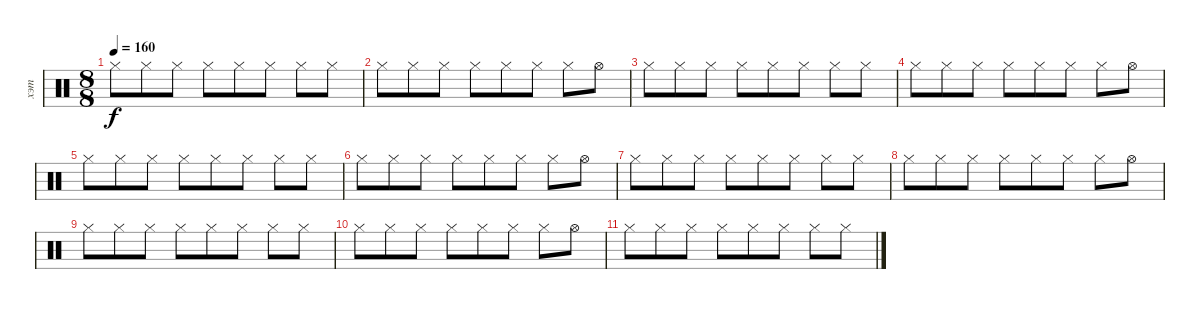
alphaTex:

\track ("хэт" "хэт") {instrument percussion}
\staff {score}
\articulation defaults
\ts (8 8)
\tempo 160
\clef neutral
\ks c "Hi-Hat (closed)".8{dy f volume 16} "Hi-Hat (closed)".8 "Hi-Hat (closed)".8{volume 16} "Hi-Hat (closed)".8 "Hi-Hat (closed)".8{volume 15} "Hi-Hat (closed)".8{volume 15} "Hi-Hat (closed)".8{volume 15} "Hi-Hat (closed)".8
|
"Hi-Hat (closed)".8{volume 15} "Hi-Hat (closed)".8{volume 15} "Hi-Hat (closed)".8{volume 14} "Hi-Hat (closed)".8{volume 14} "Hi-Hat (closed)".8{volume 14} "Hi-Hat (closed)".8{volume 14} "Hi-Hat (closed)".8{volume 14} "Hi-Hat (open)".8{volume 14} |
"Hi-Hat (closed)".8{volume 14} "Hi-Hat (closed)".8{volume 13} "Hi-Hat (closed)".8{volume 13} "Hi-Hat (closed)".8 "Hi-Hat (closed)".8{volume 13} "Hi-Hat (closed)".8{volume 12} "Hi-Hat (closed)".8{volume 12} "Hi-Hat (closed)".8{volume 12} |
"Hi-Hat (closed)".8{volume 12} "Hi-Hat (closed)".8{volume 12} "Hi-Hat (closed)".8{volume 11} "Hi-Hat (closed)".8{volume 11} "Hi-Hat (closed)".8{volume 11} "Hi-Hat (closed)".8 "Hi-Hat (closed)".8{volume 11} "Hi-Hat (open)".8{volume 11} |
"Hi-Hat (closed)".8{volume 10} "Hi-Hat (closed)".8{volume 10} "Hi-Hat (closed)".8{volume 10} "Hi-Hat (closed)".8{volume 10} "Hi-Hat (closed)".8 "Hi-Hat (closed)".8{volume 10} "Hi-Hat (closed)".8{volume 10} "Hi-Hat (closed)".8{volume 9} |
"Hi-Hat (closed)".8{volume 9} "Hi-Hat (closed)".8 "Hi-Hat (closed)".8{volume 9} "Hi-Hat (closed)".8{volume 9} "Hi-Hat (closed)".8{volume 9} "Hi-Hat (closed)".8{volume 8} "Hi-Hat (closed)".8{volume 8} "Hi-Hat (open)".8{volume 8} |
"Hi-Hat (closed)".8{volume 8} "Hi-Hat (closed)".8{volume 7} "Hi-Hat (closed)".8{volume 7} "Hi-Hat (closed)".8{volume 7} "Hi-Hat (closed)".8{volume 7} "Hi-Hat (closed)".8{volume 7} "Hi-Hat (closed)".8{volume 6} "Hi-Hat (closed)".8{volume 6} |
"Hi-Hat (closed)".8{volume 6} "Hi-Hat (closed)".8{volume 6} "Hi-Hat (closed)".8{volume 6} "Hi-Hat (closed)".8{volume 5} "Hi-Hat (closed)".8{volume 5} "Hi-Hat (closed)".8{volume 5} "Hi-Hat (closed)".8 "Hi-Hat (open)".8{volume 5} |
"Hi-Hat (closed)".8{volume 4} "Hi-Hat (closed)".8{volume 4} "Hi-Hat (closed)".8{volume 4} "Hi-Hat (closed)".8{volume 3} "Hi-Hat (closed)".8{volume 3} "Hi-Hat (closed)".8{volume 2} "Hi-Hat (closed)".8 "Hi-Hat (closed)".8 |
"Hi-Hat (closed)".8{volume 2} "Hi-Hat (closed)".8 "Hi-Hat (closed)".8{volume 2} "Hi-Hat (closed)".8{volume 2} "Hi-Hat (closed)".8 "Hi-Hat (closed)".8{volume 2} "Hi-Hat (closed)".8{volume 1} "Hi-Hat (open)".8{volume 1} |
"Hi-Hat (closed)".8 "Hi-Hat (closed)".8{volume 1} "Hi-Hat (closed)".8{volume 1} "Hi-Hat (closed)".8{volume 0} "Hi-Hat (closed)".8{volume 0} "Hi-Hat (closed)".8{volume 0} "Hi-Hat (closed)".8{volume 0} "Hi-Hat (closed)".8
